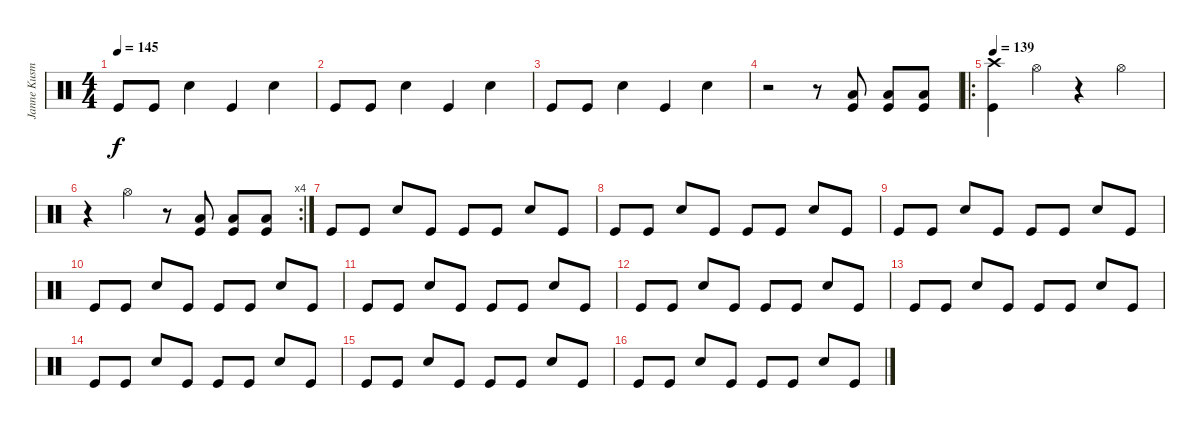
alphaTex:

\track ("Janne Kusmin " "Janne Kusm") {instrument percussion}
\staff {score}
\articulation defaults
\ts (4 4)
\tempo 145
\clef neutral
\ks c "Kick (hit)".8{dy f} "Kick (hit)".8 "Snare (hit) 2".4 "Kick (hit)".4 "Snare (hit) 2".4
|
"Kick (hit)".8 "Kick (hit)".8 "Snare (hit) 2".4 "Kick (hit)".4 "Snare (hit) 2".4 |
"Kick (hit)".8 "Kick (hit)".8 "Snare (hit) 2".4 "Kick (hit)".4 "Snare (hit) 2".4 |
r.2 r.8 ("Low Tom (hit)" "Kick (hit)").8 ("Low Tom (hit)" "Kick (hit)").8 ("Low Tom (hit)" "Kick (hit)").8 |
\ro
\tempo 139
("Crash high (hit)" "Kick (hit)").4 "Hi-Hat (open)".4 r.4 "Hi-Hat (open)".4 |
\rc 4
r.4 "Hi-Hat (open)".4 r.8 ("Low Tom (hit)" "Kick (hit)").8 ("Low Tom (hit)" "Kick (hit)").8 ("Low Tom (hit)" "Kick (hit)").8 |
"Kick (hit)".8 "Kick (hit)".8 "Snare (hit) 2".8 "Kick (hit)".8 "Kick (hit)".8 "Kick (hit)".8 "Snare (hit) 2".8 "Kick (hit)".8 |
"Kick (hit)".8 "Kick (hit)".8 "Snare (hit) 2".8 "Kick (hit)".8 "Kick (hit)".8 "Kick (hit)".8 "Snare (hit) 2".8 "Kick (hit)".8 |
"Kick (hit)".8 "Kick (hit)".8 "Snare (hit) 2".8 "Kick (hit)".8 "Kick (hit)".8 "Kick (hit)".8 "Snare (hit) 2".8 "Kick (hit)".8 |
"Kick (hit)".8 "Kick (hit)".8 "Snare (hit) 2".8 "Kick (hit)".8 "Kick (hit)".8 "Kick (hit)".8 "Snare (hit) 2".8 "Kick (hit)".8 |
"Kick (hit)".8 "Kick (hit)".8 "Snare (hit) 2".8 "Kick (hit)".8 "Kick (hit)".8 "Kick (hit)".8 "Snare (hit) 2".8 "Kick (hit)".8 |
"Kick (hit)".8 "Kick (hit)".8 "Snare (hit) 2".8 "Kick (hit)".8 "Kick (hit)".8 "Kick (hit)".8 "Snare (hit) 2".8 "Kick (hit)".8 |
"Kick (hit)".8 "Kick (hit)".8 "Snare (hit) 2".8 "Kick (hit)".8 "Kick (hit)".8 "Kick (hit)".8 "Snare (hit) 2".8 "Kick (hit)".8 |
"Kick (hit)".8 "Kick (hit)".8 "Snare (hit) 2".8 "Kick (hit)".8 "Kick (hit)".8 "Kick (hit)".8 "Snare (hit) 2".8 "Kick (hit)".8 |
"Kick (hit)".8 "Kick (hit)".8 "Snare (hit) 2".8 "Kick (hit)".8 "Kick (hit)".8 "Kick (hit)".8 "Snare (hit) 2".8 "Kick (hit)".8 |
"Kick (hit)".8 "Kick (hit)".8 "Snare (hit) 2".8 "Kick (hit)".8 "Kick (hit)".8 "Kick (hit)".8 "Snare (hit) 2".8 "Kick (hit)".8
